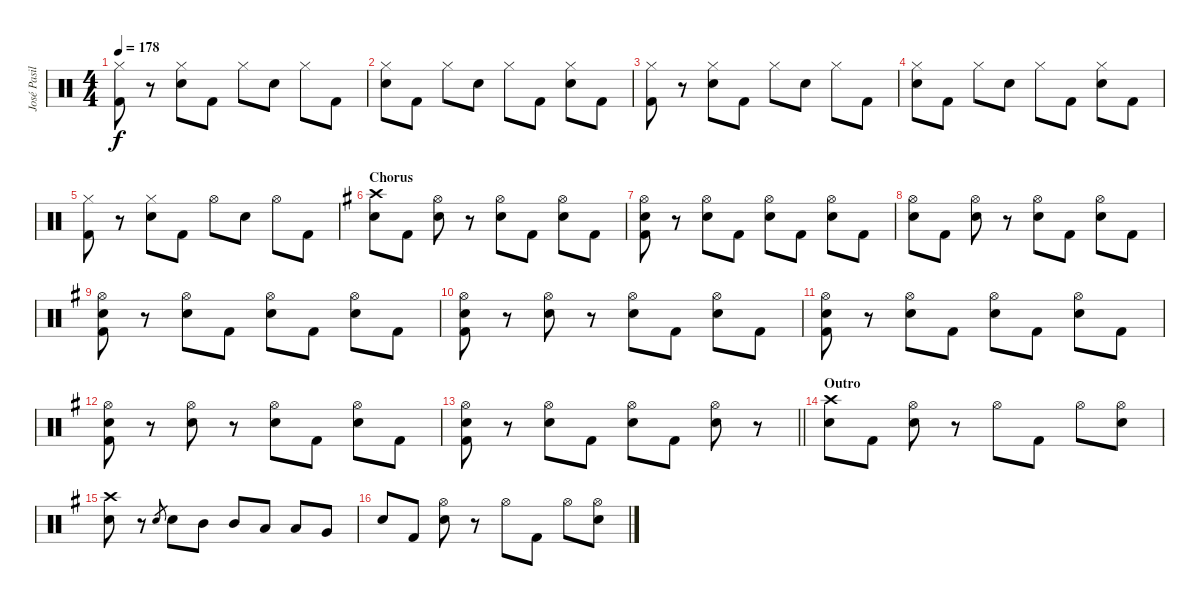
\track ("José Pasillas [Drums]" "José Pasil") {instrument percussion}
\staff {score}
\articulation defaults
\ts (4 4)
\tempo 178
\clef neutral
\ks c
("Kick (hit) 2" "Hi-Hat (closed)").8{dy f} r.8 ("Electric Snare (hit)" "Hi-Hat (closed)").8 "Kick (hit) 2".8 "Hi-Hat (closed)".8 "Electric Snare (hit)".8 "Hi-Hat (closed)".8 "Kick (hit) 2".8 |
("Electric Snare (hit)" "Hi-Hat (closed)").8 "Kick (hit) 2".8 "Hi-Hat (closed)".8 "Electric Snare (hit)".8 "Hi-Hat (closed)".8 "Kick (hit) 2".8 ("Electric Snare (hit)" "Hi-Hat (closed)").8 "Kick (hit) 2".8 |
("Kick (hit) 2" "Hi-Hat (closed)").8 r.8 ("Electric Snare (hit)" "Hi-Hat (closed)").8 "Kick (hit) 2".8 "Hi-Hat (closed)".8 "Electric Snare (hit)".8 "Hi-Hat (closed)".8 "Kick (hit) 2".8 |
("Electric Snare (hit)" "Hi-Hat (closed)").8 "Kick (hit) 2".8 "Hi-Hat (closed)".8 "Electric Snare (hit)".8 "Hi-Hat (closed)".8 "Kick (hit) 2".8 ("Electric Snare (hit)" "Hi-Hat (closed)").8 "Kick (hit) 2".8 |
("Kick (hit) 2" "Hi-Hat (closed)").8 r.8 ("Electric Snare (hit)" "Hi-Hat (closed)").8 "Kick (hit) 2".8 "Hi-Hat (open)".8 "Electric Snare (hit)".8 "Hi-Hat (open)".8 "Kick (hit) 2".8 |
\section ("" "Chorus")
\ks g
("Electric Snare (hit)" "Crash high (hit)").8 "Kick (hit) 2".8 ("Electric Snare (hit)" "Hi-Hat (open)").8 r.8 ("Electric Snare (hit)" "Hi-Hat (open)").8 "Kick (hit) 2".8 ("Electric Snare (hit)" "Hi-Hat (open)").8 "Kick (hit) 2".8 |
("Kick (hit) 2" "Electric Snare (hit)" "Hi-Hat (open)").8 r.8 ("Electric Snare (hit)" "Hi-Hat (open)").8 "Kick (hit) 2".8 ("Electric Snare (hit)" "Hi-Hat (open)").8 "Kick (hit) 2".8 ("Electric Snare (hit)" "Hi-Hat (open)").8 "Kick (hit) 2".8 |
("Electric Snare (hit)" "Hi-Hat (open)").8 "Kick (hit) 2".8 ("Electric Snare (hit)" "Hi-Hat (open)").8 r.8 ("Electric Snare (hit)" "Hi-Hat (open)").8 "Kick (hit) 2".8 ("Electric Snare (hit)" "Hi-Hat (open)").8 "Kick (hit) 2".8 |
("Kick (hit) 2" "Electric Snare (hit)" "Hi-Hat (open)").8 r.8 ("Electric Snare (hit)" "Hi-Hat (open)").8 "Kick (hit) 2".8 ("Electric Snare (hit)" "Hi-Hat (open)").8 "Kick (hit) 2".8 ("Electric Snare (hit)" "Hi-Hat (open)").8 "Kick (hit) 2".8 |
("Kick (hit) 2" "Electric Snare (hit)" "Hi-Hat (open)").8 r.8 ("Electric Snare (hit)" "Hi-Hat (open)").8 r.8 ("Electric Snare (hit)" "Hi-Hat (open)").8 "Kick (hit) 2".8 ("Electric Snare (hit)" "Hi-Hat (open)").8 "Kick (hit) 2".8 |
("Kick (hit) 2" "Electric Snare (hit)" "Hi-Hat (open)").8 r.8 ("Electric Snare (hit)" "Hi-Hat (open)").8 "Kick (hit) 2".8 ("Electric Snare (hit)" "Hi-Hat (open)").8 "Kick (hit) 2".8 ("Electric Snare (hit)" "Hi-Hat (open)").8 "Kick (hit) 2".8 |
("Kick (hit) 2" "Electric Snare (hit)" "Hi-Hat (open)").8 r.8 ("Electric Snare (hit)" "Hi-Hat (open)").8 r.8 ("Electric Snare (hit)" "Hi-Hat (open)").8 "Kick (hit) 2".8 ("Electric Snare (hit)" "Hi-Hat (open)").8 "Kick (hit) 2".8 |
\barLineRight lightlight
("Kick (hit) 2" "Electric Snare (hit)" "Hi-Hat (open)").8 r.8 ("Electric Snare (hit)" "Hi-Hat (open)").8 "Kick (hit) 2".8 ("Electric Snare (hit)" "Hi-Hat (open)").8 "Kick (hit) 2".8 ("Electric Snare (hit)" "Hi-Hat (open)").8 r.8 |
\section ("" "Outro")
("Electric Snare (hit)" "Crash high (hit)").8 "Kick (hit) 2".8 ("Electric Snare (hit)" "Hi-Hat (open)").8 r.8 "Hi-Hat (open)".8 "Kick (hit) 2".8 "Hi-Hat (open)".8 ("Electric Snare (hit)" "Hi-Hat (open)").8 |
("Electric Snare (hit)" "Crash high (hit)").8 r.8 "Electric Snare (hit)".8{gr} "Electric Snare (hit)".8 "Mid Tom (hit)".8 "Mid Tom (hit)".8 "Low Tom (hit)".8 "Low Tom (hit)".8 "Very Low Tom (hit)".8 |
"Electric Snare (hit)".8 "Kick (hit) 2".8 ("Electric Snare (hit)" "Hi-Hat (open)").8 r.8 "Hi-Hat (open)".8 "Kick (hit) 2".8 "Hi-Hat (open)".8 ("Electric Snare (hit)" "Hi-Hat (open)").8
